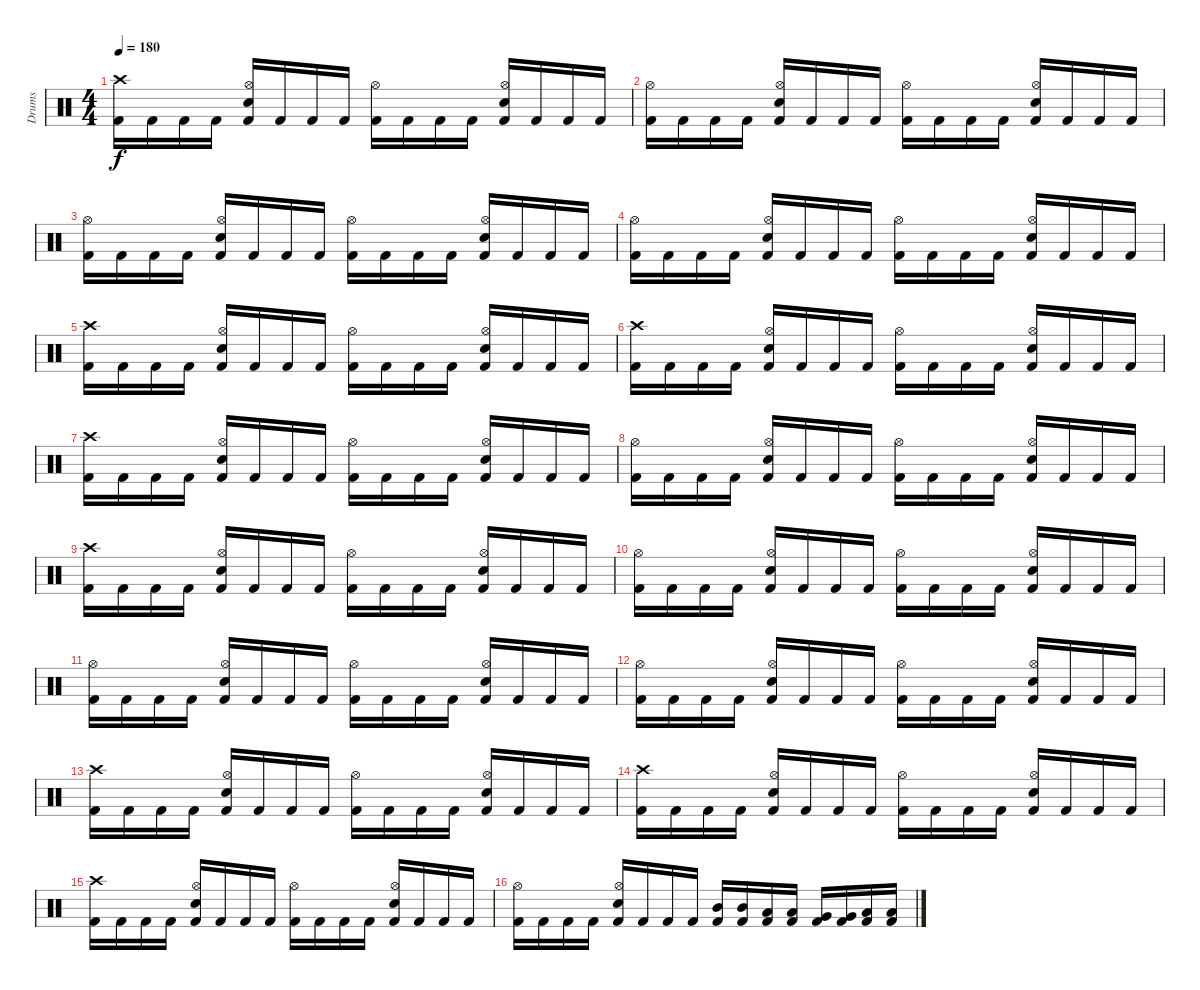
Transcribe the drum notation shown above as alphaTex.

\track ("Drums" "Drums") {instrument percussion}
\staff {score}
\articulation defaults
\ts (4 4)
\tempo 180
\clef neutral
\ks c
("Crash high (hit)" "Kick (hit) 2").16{dy f} "Kick (hit) 2".16 "Kick (hit) 2".16 "Kick (hit) 2".16 ("Hi-Hat (open)" "Electric Snare (hit)" "Kick (hit) 2").16 "Kick (hit) 2".16 "Kick (hit) 2".16 "Kick (hit) 2".16 ("Hi-Hat (open)" "Kick (hit) 2").16 "Kick (hit) 2".16 "Kick (hit) 2".16 "Kick (hit) 2".16 ("Hi-Hat (open)" "Electric Snare (hit)" "Kick (hit) 2").16 "Kick (hit) 2".16 "Kick (hit) 2".16 "Kick (hit) 2".16 |
("Hi-Hat (open)" "Kick (hit) 2").16 "Kick (hit) 2".16 "Kick (hit) 2".16 "Kick (hit) 2".16 ("Hi-Hat (open)" "Electric Snare (hit)" "Kick (hit) 2").16 "Kick (hit) 2".16 "Kick (hit) 2".16 "Kick (hit) 2".16 ("Hi-Hat (open)" "Kick (hit) 2").16 "Kick (hit) 2".16 "Kick (hit) 2".16 "Kick (hit) 2".16 ("Hi-Hat (open)" "Electric Snare (hit)" "Kick (hit) 2").16 "Kick (hit) 2".16 "Kick (hit) 2".16 "Kick (hit) 2".16 |
("Hi-Hat (open)" "Kick (hit) 2").16 "Kick (hit) 2".16 "Kick (hit) 2".16 "Kick (hit) 2".16 ("Hi-Hat (open)" "Electric Snare (hit)" "Kick (hit) 2").16 "Kick (hit) 2".16 "Kick (hit) 2".16 "Kick (hit) 2".16 ("Hi-Hat (open)" "Kick (hit) 2").16 "Kick (hit) 2".16 "Kick (hit) 2".16 "Kick (hit) 2".16 ("Hi-Hat (open)" "Electric Snare (hit)" "Kick (hit) 2").16 "Kick (hit) 2".16 "Kick (hit) 2".16 "Kick (hit) 2".16 |
("Hi-Hat (open)" "Kick (hit) 2").16 "Kick (hit) 2".16 "Kick (hit) 2".16 "Kick (hit) 2".16 ("Hi-Hat (open)" "Electric Snare (hit)" "Kick (hit) 2").16 "Kick (hit) 2".16 "Kick (hit) 2".16 "Kick (hit) 2".16 ("Hi-Hat (open)" "Kick (hit) 2").16 "Kick (hit) 2".16 "Kick (hit) 2".16 "Kick (hit) 2".16 ("Hi-Hat (open)" "Electric Snare (hit)" "Kick (hit) 2").16 "Kick (hit) 2".16 "Kick (hit) 2".16 "Kick (hit) 2".16 |
("Crash high (hit)" "Kick (hit) 2").16 "Kick (hit) 2".16 "Kick (hit) 2".16 "Kick (hit) 2".16 ("Hi-Hat (open)" "Electric Snare (hit)" "Kick (hit) 2").16 "Kick (hit) 2".16 "Kick (hit) 2".16 "Kick (hit) 2".16 ("Hi-Hat (open)" "Kick (hit) 2").16 "Kick (hit) 2".16 "Kick (hit) 2".16 "Kick (hit) 2".16 ("Hi-Hat (open)" "Electric Snare (hit)" "Kick (hit) 2").16 "Kick (hit) 2".16 "Kick (hit) 2".16 "Kick (hit) 2".16 |
("Crash high (hit)" "Kick (hit) 2").16 "Kick (hit) 2".16 "Kick (hit) 2".16 "Kick (hit) 2".16 ("Hi-Hat (open)" "Electric Snare (hit)" "Kick (hit) 2").16 "Kick (hit) 2".16 "Kick (hit) 2".16 "Kick (hit) 2".16 ("Hi-Hat (open)" "Kick (hit) 2").16 "Kick (hit) 2".16 "Kick (hit) 2".16 "Kick (hit) 2".16 ("Hi-Hat (open)" "Electric Snare (hit)" "Kick (hit) 2").16 "Kick (hit) 2".16 "Kick (hit) 2".16 "Kick (hit) 2".16 |
("Crash high (hit)" "Kick (hit) 2").16 "Kick (hit) 2".16 "Kick (hit) 2".16 "Kick (hit) 2".16 ("Hi-Hat (open)" "Electric Snare (hit)" "Kick (hit) 2").16 "Kick (hit) 2".16 "Kick (hit) 2".16 "Kick (hit) 2".16 ("Hi-Hat (open)" "Kick (hit) 2").16 "Kick (hit) 2".16 "Kick (hit) 2".16 "Kick (hit) 2".16 ("Hi-Hat (open)" "Electric Snare (hit)" "Kick (hit) 2").16 "Kick (hit) 2".16 "Kick (hit) 2".16 "Kick (hit) 2".16 |
("Hi-Hat (open)" "Kick (hit) 2").16 "Kick (hit) 2".16 "Kick (hit) 2".16 "Kick (hit) 2".16 ("Hi-Hat (open)" "Electric Snare (hit)" "Kick (hit) 2").16 "Kick (hit) 2".16 "Kick (hit) 2".16 "Kick (hit) 2".16 ("Hi-Hat (open)" "Kick (hit) 2").16 "Kick (hit) 2".16 "Kick (hit) 2".16 "Kick (hit) 2".16 ("Hi-Hat (open)" "Electric Snare (hit)" "Kick (hit) 2").16 "Kick (hit) 2".16 "Kick (hit) 2".16 "Kick (hit) 2".16 |
("Crash high (hit)" "Kick (hit) 2").16 "Kick (hit) 2".16 "Kick (hit) 2".16 "Kick (hit) 2".16 ("Hi-Hat (open)" "Electric Snare (hit)" "Kick (hit) 2").16 "Kick (hit) 2".16 "Kick (hit) 2".16 "Kick (hit) 2".16 ("Hi-Hat (open)" "Kick (hit) 2").16 "Kick (hit) 2".16 "Kick (hit) 2".16 "Kick (hit) 2".16 ("Hi-Hat (open)" "Electric Snare (hit)" "Kick (hit) 2").16 "Kick (hit) 2".16 "Kick (hit) 2".16 "Kick (hit) 2".16 |
("Hi-Hat (open)" "Kick (hit) 2").16 "Kick (hit) 2".16 "Kick (hit) 2".16 "Kick (hit) 2".16 ("Hi-Hat (open)" "Electric Snare (hit)" "Kick (hit) 2").16 "Kick (hit) 2".16 "Kick (hit) 2".16 "Kick (hit) 2".16 ("Hi-Hat (open)" "Kick (hit) 2").16 "Kick (hit) 2".16 "Kick (hit) 2".16 "Kick (hit) 2".16 ("Hi-Hat (open)" "Electric Snare (hit)" "Kick (hit) 2").16 "Kick (hit) 2".16 "Kick (hit) 2".16 "Kick (hit) 2".16 |
("Hi-Hat (open)" "Kick (hit) 2").16 "Kick (hit) 2".16 "Kick (hit) 2".16 "Kick (hit) 2".16 ("Hi-Hat (open)" "Electric Snare (hit)" "Kick (hit) 2").16 "Kick (hit) 2".16 "Kick (hit) 2".16 "Kick (hit) 2".16 ("Hi-Hat (open)" "Kick (hit) 2").16 "Kick (hit) 2".16 "Kick (hit) 2".16 "Kick (hit) 2".16 ("Hi-Hat (open)" "Electric Snare (hit)" "Kick (hit) 2").16 "Kick (hit) 2".16 "Kick (hit) 2".16 "Kick (hit) 2".16 |
("Hi-Hat (open)" "Kick (hit) 2").16 "Kick (hit) 2".16 "Kick (hit) 2".16 "Kick (hit) 2".16 ("Hi-Hat (open)" "Electric Snare (hit)" "Kick (hit) 2").16 "Kick (hit) 2".16 "Kick (hit) 2".16 "Kick (hit) 2".16 ("Hi-Hat (open)" "Kick (hit) 2").16 "Kick (hit) 2".16 "Kick (hit) 2".16 "Kick (hit) 2".16 ("Hi-Hat (open)" "Electric Snare (hit)" "Kick (hit) 2").16 "Kick (hit) 2".16 "Kick (hit) 2".16 "Kick (hit) 2".16 |
("Crash high (hit)" "Kick (hit) 2").16 "Kick (hit) 2".16 "Kick (hit) 2".16 "Kick (hit) 2".16 ("Hi-Hat (open)" "Electric Snare (hit)" "Kick (hit) 2").16 "Kick (hit) 2".16 "Kick (hit) 2".16 "Kick (hit) 2".16 ("Hi-Hat (open)" "Kick (hit) 2").16 "Kick (hit) 2".16 "Kick (hit) 2".16 "Kick (hit) 2".16 ("Hi-Hat (open)" "Electric Snare (hit)" "Kick (hit) 2").16 "Kick (hit) 2".16 "Kick (hit) 2".16 "Kick (hit) 2".16 |
("Crash high (hit)" "Kick (hit) 2").16 "Kick (hit) 2".16 "Kick (hit) 2".16 "Kick (hit) 2".16 ("Hi-Hat (open)" "Electric Snare (hit)" "Kick (hit) 2").16 "Kick (hit) 2".16 "Kick (hit) 2".16 "Kick (hit) 2".16 ("Hi-Hat (open)" "Kick (hit) 2").16 "Kick (hit) 2".16 "Kick (hit) 2".16 "Kick (hit) 2".16 ("Hi-Hat (open)" "Electric Snare (hit)" "Kick (hit) 2").16 "Kick (hit) 2".16 "Kick (hit) 2".16 "Kick (hit) 2".16 |
("Crash high (hit)" "Kick (hit) 2").16 "Kick (hit) 2".16 "Kick (hit) 2".16 "Kick (hit) 2".16 ("Hi-Hat (open)" "Electric Snare (hit)" "Kick (hit) 2").16 "Kick (hit) 2".16 "Kick (hit) 2".16 "Kick (hit) 2".16 ("Hi-Hat (open)" "Kick (hit) 2").16 "Kick (hit) 2".16 "Kick (hit) 2".16 "Kick (hit) 2".16 ("Hi-Hat (open)" "Electric Snare (hit)" "Kick (hit) 2").16 "Kick (hit) 2".16 "Kick (hit) 2".16 "Kick (hit) 2".16 |
("Hi-Hat (open)" "Kick (hit) 2").16 "Kick (hit) 2".16 "Kick (hit) 2".16 "Kick (hit) 2".16 ("Hi-Hat (open)" "Electric Snare (hit)" "Kick (hit) 2").16 "Kick (hit) 2".16 "Kick (hit) 2".16 "Kick (hit) 2".16 ("Mid Tom (hit)" "Kick (hit) 2").16 ("Mid Tom (hit)" "Kick (hit) 2").16 ("Low Tom (hit)" "Kick (hit) 2").16 ("Low Tom (hit)" "Kick (hit) 2").16 ("Very Low Tom (hit)" "Kick (hit) 2").16 ("Very Low Tom (hit)" "Kick (hit) 2").16 ("Low Floor Tom (hit)" "Kick (hit) 2").16 ("Low Floor Tom (hit)" "Kick (hit) 2").16
